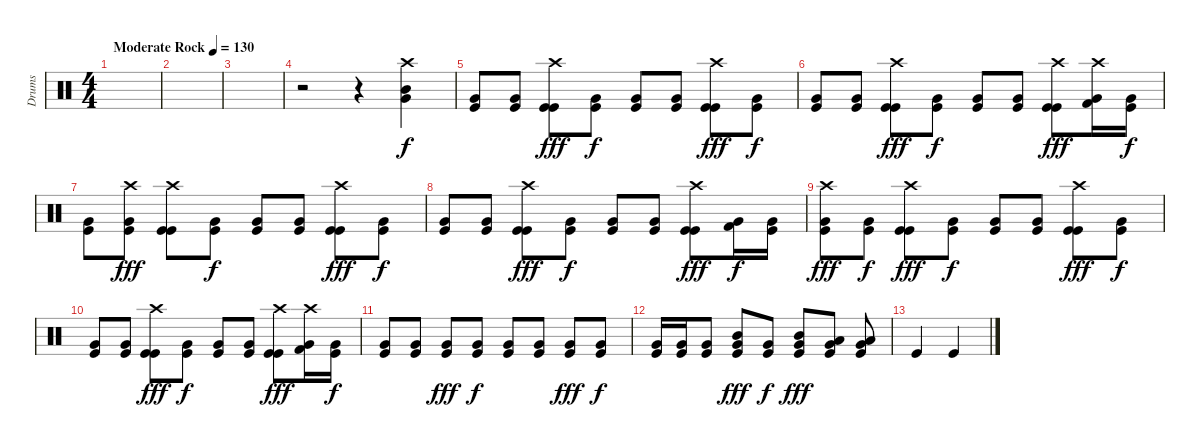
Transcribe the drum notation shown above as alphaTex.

\track ("Drums" "Drums") {instrument percussion}
\staff {score}
\articulation defaults
\ts (4 4)
\tempo (130 "Moderate Rock")
\clef neutral
\ks c
|
|
|
r.2 r.4 ("Crash high (hit)" "Mid Tom (hit)" "Very Low Tom (hit)").4 |
("Very Low Tom (hit)" "Kick (hit)").8{dy f} ("Very Low Tom (hit)" "Kick (hit)").8 ("Crash high (hit)" "Kick (hit)" "Kick (hit)").8{dy fff} ("Very Low Tom (hit)" "Kick (hit)").8{dy f} ("Very Low Tom (hit)" "Kick (hit)").8 ("Very Low Tom (hit)" "Kick (hit)").8 ("Crash high (hit)" "Kick (hit)" "Kick (hit)").8{dy fff} ("Very Low Tom (hit)" "Kick (hit)").8{dy f} |
("Very Low Tom (hit)" "Kick (hit)").8 ("Very Low Tom (hit)" "Kick (hit)").8 ("Crash high (hit)" "Kick (hit)" "Kick (hit)").8{dy fff} ("Very Low Tom (hit)" "Kick (hit)").8{dy f} ("Very Low Tom (hit)" "Kick (hit)").8 ("Very Low Tom (hit)" "Kick (hit)").8 ("Crash high (hit)" "Kick (hit)" "Kick (hit)").8{dy fff} ("Crash high (hit)" "Very Low Tom (hit)" "Kick (hit) 2").16 ("Very Low Tom (hit)" "Kick (hit)").16{dy f} |
("Very Low Tom (hit)" "Kick (hit)").8 ("Crash high (hit)" "Very Low Tom (hit)" "Kick (hit)").8{dy fff} ("Crash high (hit)" "Kick (hit)" "Kick (hit)").8 ("Very Low Tom (hit)" "Kick (hit)").8{dy f} ("Very Low Tom (hit)" "Kick (hit)").8 ("Very Low Tom (hit)" "Kick (hit)").8 ("Crash high (hit)" "Kick (hit)" "Kick (hit)").8{dy fff} ("Very Low Tom (hit)" "Kick (hit)").8{dy f} |
("Very Low Tom (hit)" "Kick (hit)").8 ("Very Low Tom (hit)" "Kick (hit)").8 ("Crash high (hit)" "Kick (hit)" "Kick (hit)").8{dy fff} ("Very Low Tom (hit)" "Kick (hit)").8{dy f} ("Very Low Tom (hit)" "Kick (hit)").8 ("Very Low Tom (hit)" "Kick (hit)").8 ("Crash high (hit)" "Kick (hit)" "Kick (hit)").8{dy fff} ("Very Low Tom (hit)" "Kick (hit) 2").16{dy f} ("Very Low Tom (hit)" "Kick (hit)").16 |
("Crash high (hit)" "Very Low Tom (hit)" "Kick (hit)").8{dy fff} ("Very Low Tom (hit)" "Kick (hit)").8{dy f} ("Crash high (hit)" "Kick (hit)" "Kick (hit)").8{dy fff} ("Very Low Tom (hit)" "Kick (hit)").8{dy f} ("Very Low Tom (hit)" "Kick (hit)").8 ("Very Low Tom (hit)" "Kick (hit)").8 ("Crash high (hit)" "Kick (hit)" "Kick (hit)").8{dy fff} ("Very Low Tom (hit)" "Kick (hit)").8{dy f} |
("Very Low Tom (hit)" "Kick (hit)").8 ("Very Low Tom (hit)" "Kick (hit)").8 ("Crash high (hit)" "Kick (hit)" "Kick (hit)").8{dy fff} ("Very Low Tom (hit)" "Kick (hit)").8{dy f} ("Very Low Tom (hit)" "Kick (hit)").8 ("Very Low Tom (hit)" "Kick (hit)").8 ("Crash high (hit)" "Kick (hit)" "Kick (hit)").8{dy fff} ("Crash high (hit)" "Very Low Tom (hit)" "Kick (hit) 2").16 ("Very Low Tom (hit)" "Kick (hit)").16{dy f} |
("Very Low Tom (hit)" "Kick (hit)").8 ("Very Low Tom (hit)" "Kick (hit)").8 ("Very Low Tom (hit)" "Kick (hit)").8{dy fff} ("Very Low Tom (hit)" "Kick (hit)").8{dy f} ("Very Low Tom (hit)" "Kick (hit)").8 ("Very Low Tom (hit)" "Kick (hit)").8 ("Very Low Tom (hit)" "Kick (hit)").8{dy fff} ("Very Low Tom (hit)" "Kick (hit)").8{dy f} |
("Very Low Tom (hit)" "Kick (hit)").16 ("Very Low Tom (hit)" "Kick (hit)").16 ("Very Low Tom (hit)" "Kick (hit)").8 ("Mid Tom (hit)" "Very Low Tom (hit)" "Kick (hit)").8{dy fff} ("Very Low Tom (hit)" "Kick (hit)").8{dy f} ("Mid Tom (hit)" "Very Low Tom (hit)" "Kick (hit)").8{dy fff} ("Low Tom (hit)" "Very Low Tom (hit)" "Kick (hit)").8 ("Low Tom (hit)" "Very Low Tom (hit)" "Kick (hit)").8 |
"Kick (hit)".4 "Kick (hit)".4
